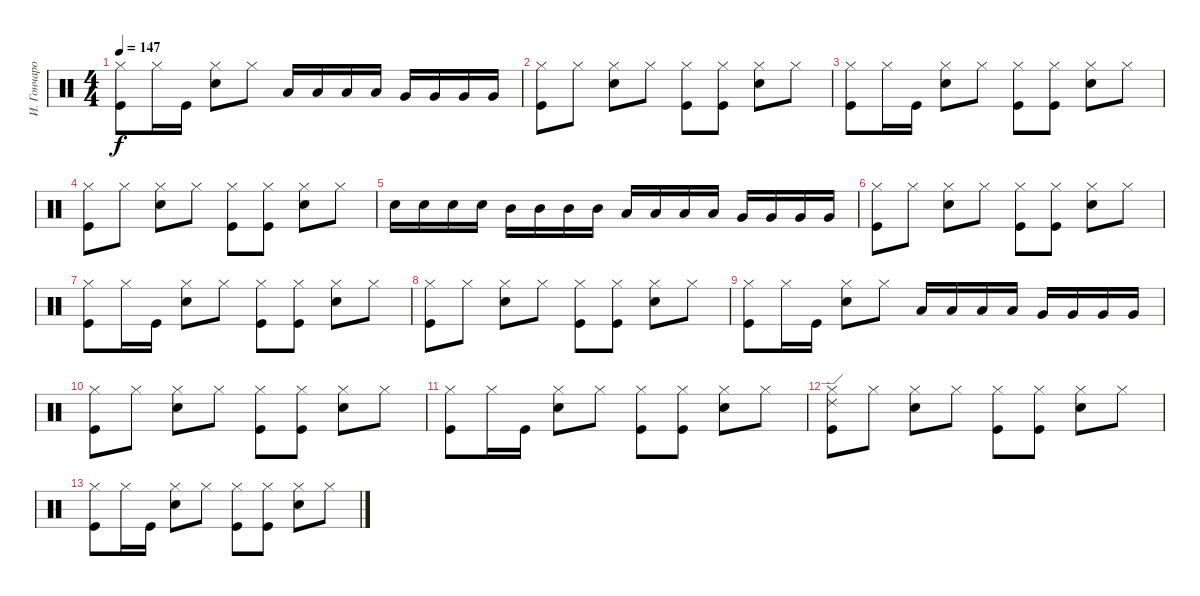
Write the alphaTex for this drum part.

\track ("И. Гончаров" "И. Гончаро") {instrument percussion}
\staff {score}
\articulation defaults
\ts (4 4)
\tempo 147
\clef neutral
\ks c
("Hi-Hat (closed)" "Kick (hit)").8{dy f} "Hi-Hat (closed)".16 "Kick (hit)".16 ("Hi-Hat (closed)" "Snare (hit) 2").8 "Hi-Hat (closed)".8 "Low Tom (hit)".16 "Low Tom (hit)".16 "Low Tom (hit)".16 "Low Tom (hit)".16 "Very Low Tom (hit)".16 "Very Low Tom (hit)".16 "Very Low Tom (hit)".16 "Very Low Tom (hit)".16 |
("Hi-Hat (closed)" "Kick (hit)").8 "Hi-Hat (closed)".8 ("Hi-Hat (closed)" "Snare (hit) 2").8 "Hi-Hat (closed)".8 ("Hi-Hat (closed)" "Kick (hit)").8 ("Hi-Hat (closed)" "Kick (hit)").8 ("Hi-Hat (closed)" "Snare (hit) 2").8 "Hi-Hat (closed)".8 |
("Hi-Hat (closed)" "Kick (hit)").8 "Hi-Hat (closed)".16 "Kick (hit)".16 ("Hi-Hat (closed)" "Snare (hit) 2").8 "Hi-Hat (closed)".8 ("Hi-Hat (closed)" "Kick (hit)").8 ("Hi-Hat (closed)" "Kick (hit)").8 ("Hi-Hat (closed)" "Snare (hit) 2").8 "Hi-Hat (closed)".8 |
("Hi-Hat (closed)" "Kick (hit)").8 "Hi-Hat (closed)".8 ("Hi-Hat (closed)" "Snare (hit) 2").8 "Hi-Hat (closed)".8 ("Hi-Hat (closed)" "Kick (hit)").8 ("Hi-Hat (closed)" "Kick (hit)").8 ("Hi-Hat (closed)" "Snare (hit) 2").8 "Hi-Hat (closed)".8 |
"Snare (hit) 2".16 "Snare (hit) 2".16 "Snare (hit) 2".16 "Snare (hit) 2".16 "Mid Tom (hit)".16 "Mid Tom (hit)".16 "Mid Tom (hit)".16 "Mid Tom (hit)".16 "Low Tom (hit)".16 "Low Tom (hit)".16 "Low Tom (hit)".16 "Low Tom (hit)".16 "Very Low Tom (hit)".16 "Very Low Tom (hit)".16 "Very Low Tom (hit)".16 "Very Low Tom (hit)".16 |
("Hi-Hat (closed)" "Kick (hit)").8 "Hi-Hat (closed)".8 ("Hi-Hat (closed)" "Snare (hit) 2").8 "Hi-Hat (closed)".8 ("Hi-Hat (closed)" "Kick (hit)").8 ("Hi-Hat (closed)" "Kick (hit)").8 ("Hi-Hat (closed)" "Snare (hit) 2").8 "Hi-Hat (closed)".8 |
("Hi-Hat (closed)" "Kick (hit)").8 "Hi-Hat (closed)".16 "Kick (hit)".16 ("Hi-Hat (closed)" "Snare (hit) 2").8 "Hi-Hat (closed)".8 ("Hi-Hat (closed)" "Kick (hit)").8 ("Hi-Hat (closed)" "Kick (hit)").8 ("Hi-Hat (closed)" "Snare (hit) 2").8 "Hi-Hat (closed)".8 |
("Hi-Hat (closed)" "Kick (hit)").8 "Hi-Hat (closed)".8 ("Hi-Hat (closed)" "Snare (hit) 2").8 "Hi-Hat (closed)".8 ("Hi-Hat (closed)" "Kick (hit)").8 ("Hi-Hat (closed)" "Kick (hit)").8 ("Hi-Hat (closed)" "Snare (hit) 2").8 "Hi-Hat (closed)".8 |
("Hi-Hat (closed)" "Kick (hit)").8 "Hi-Hat (closed)".16 "Kick (hit)".16 ("Hi-Hat (closed)" "Snare (hit) 2").8 "Hi-Hat (closed)".8 "Low Tom (hit)".16 "Low Tom (hit)".16 "Low Tom (hit)".16 "Low Tom (hit)".16 "Very Low Tom (hit)".16 "Very Low Tom (hit)".16 "Very Low Tom (hit)".16 "Very Low Tom (hit)".16 |
("Hi-Hat (closed)" "Kick (hit)").8 "Hi-Hat (closed)".8 ("Hi-Hat (closed)" "Snare (hit) 2").8 "Hi-Hat (closed)".8 ("Hi-Hat (closed)" "Kick (hit)").8 ("Hi-Hat (closed)" "Kick (hit)").8 ("Hi-Hat (closed)" "Snare (hit) 2").8 "Hi-Hat (closed)".8 |
("Hi-Hat (closed)" "Kick (hit)").8 "Hi-Hat (closed)".16 "Kick (hit)".16 ("Hi-Hat (closed)" "Snare (hit) 2").8 "Hi-Hat (closed)".8 ("Hi-Hat (closed)" "Kick (hit)").8 ("Hi-Hat (closed)" "Kick (hit)").8 ("Hi-Hat (closed)" "Snare (hit) 2").8 "Hi-Hat (closed)".8 |
("Ride (edge) 2" "Hi-Hat (closed)" "Kick (hit)").8 "Hi-Hat (closed)".8 ("Hi-Hat (closed)" "Snare (hit) 2").8 "Hi-Hat (closed)".8 ("Hi-Hat (closed)" "Kick (hit)").8 ("Hi-Hat (closed)" "Kick (hit)").8 ("Hi-Hat (closed)" "Snare (hit) 2").8 "Hi-Hat (closed)".8 |
("Hi-Hat (closed)" "Kick (hit)").8{volume 0} "Hi-Hat (closed)".16 "Kick (hit)".16 ("Hi-Hat (closed)" "Snare (hit) 2").8 "Hi-Hat (closed)".8 ("Hi-Hat (closed)" "Kick (hit)").8 ("Hi-Hat (closed)" "Kick (hit)").8 ("Hi-Hat (closed)" "Snare (hit) 2").8 "Hi-Hat (closed)".8
